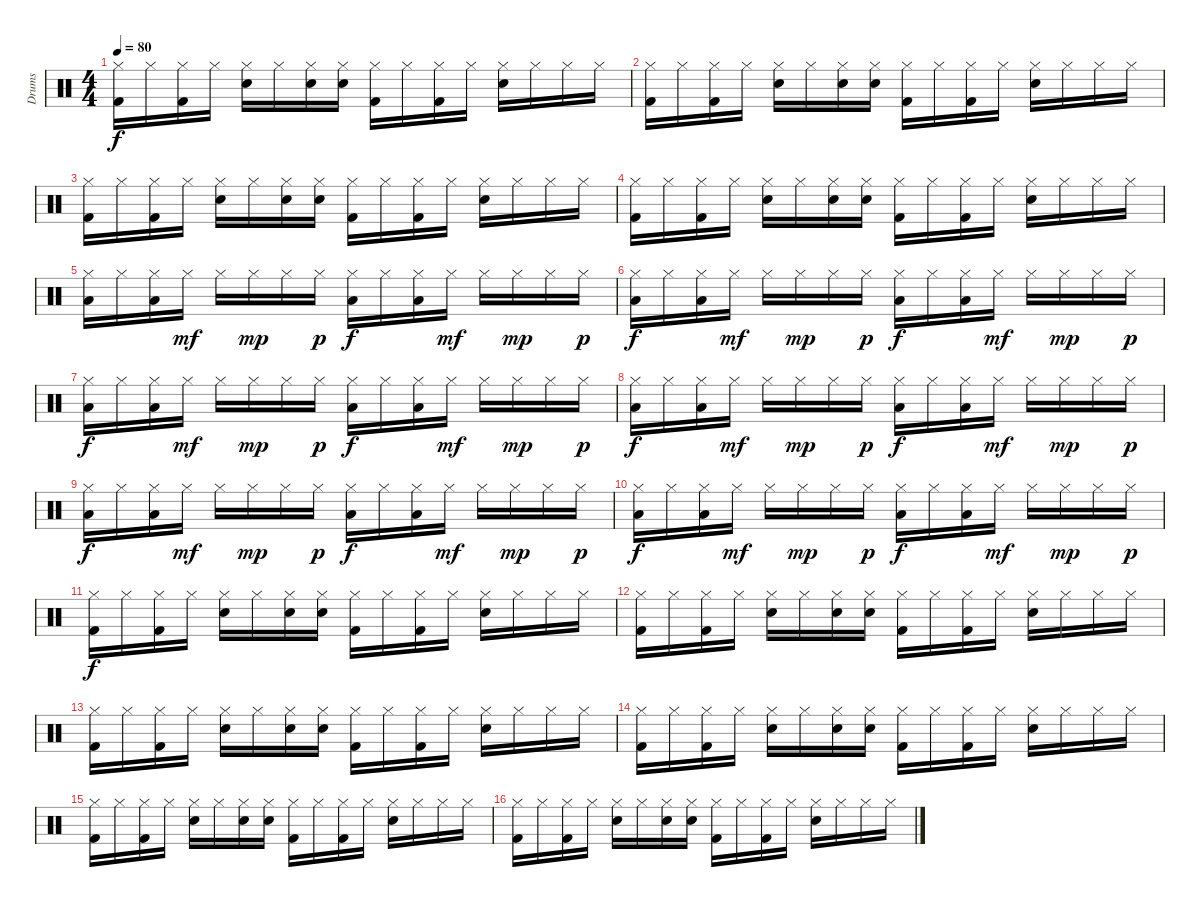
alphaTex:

\track ("Drums" "Drums") {instrument percussion}
\staff {score}
\articulation defaults
\ts (4 4)
\tempo 80
\clef neutral
\ks c
("Hi-Hat (closed)" "Kick (hit) 2").16{dy f} "Hi-Hat (closed)".16 ("Hi-Hat (closed)" "Kick (hit) 2").16 "Hi-Hat (closed)".16 ("Hi-Hat (closed)" "Electric Snare (hit)").16 "Hi-Hat (closed)".16 ("Hi-Hat (closed)" "Electric Snare (hit)").16 ("Hi-Hat (closed)" "Electric Snare (hit)").16 ("Hi-Hat (closed)" "Kick (hit) 2").16 "Hi-Hat (closed)".16 ("Hi-Hat (closed)" "Kick (hit) 2").16 "Hi-Hat (closed)".16 ("Hi-Hat (closed)" "Electric Snare (hit)").16 "Hi-Hat (closed)".16 "Hi-Hat (closed)".16 "Hi-Hat (closed)".16 |
("Hi-Hat (closed)" "Kick (hit) 2").16 "Hi-Hat (closed)".16 ("Hi-Hat (closed)" "Kick (hit) 2").16 "Hi-Hat (closed)".16 ("Hi-Hat (closed)" "Electric Snare (hit)").16 "Hi-Hat (closed)".16 ("Hi-Hat (closed)" "Electric Snare (hit)").16 ("Hi-Hat (closed)" "Electric Snare (hit)").16 ("Hi-Hat (closed)" "Kick (hit) 2").16 "Hi-Hat (closed)".16 ("Hi-Hat (closed)" "Kick (hit) 2").16 "Hi-Hat (closed)".16 ("Hi-Hat (closed)" "Electric Snare (hit)").16 "Hi-Hat (closed)".16 "Hi-Hat (closed)".16 "Hi-Hat (closed)".16 |
("Hi-Hat (closed)" "Kick (hit) 2").16 "Hi-Hat (closed)".16 ("Hi-Hat (closed)" "Kick (hit) 2").16 "Hi-Hat (closed)".16 ("Hi-Hat (closed)" "Electric Snare (hit)").16 "Hi-Hat (closed)".16 ("Hi-Hat (closed)" "Electric Snare (hit)").16 ("Hi-Hat (closed)" "Electric Snare (hit)").16 ("Hi-Hat (closed)" "Kick (hit) 2").16 "Hi-Hat (closed)".16 ("Hi-Hat (closed)" "Kick (hit) 2").16 "Hi-Hat (closed)".16 ("Hi-Hat (closed)" "Electric Snare (hit)").16 "Hi-Hat (closed)".16 "Hi-Hat (closed)".16 "Hi-Hat (closed)".16 |
("Hi-Hat (closed)" "Kick (hit) 2").16 "Hi-Hat (closed)".16 ("Hi-Hat (closed)" "Kick (hit) 2").16 "Hi-Hat (closed)".16 ("Hi-Hat (closed)" "Electric Snare (hit)").16 "Hi-Hat (closed)".16 ("Hi-Hat (closed)" "Electric Snare (hit)").16 ("Hi-Hat (closed)" "Electric Snare (hit)").16 ("Hi-Hat (closed)" "Kick (hit) 2").16 "Hi-Hat (closed)".16 ("Hi-Hat (closed)" "Kick (hit) 2").16 "Hi-Hat (closed)".16 ("Hi-Hat (closed)" "Electric Snare (hit)").16 "Hi-Hat (closed)".16 "Hi-Hat (closed)".16 "Hi-Hat (closed)".16 |
("Hi-Hat (closed)" "Low Tom (hit)").16 "Hi-Hat (closed)".16 ("Hi-Hat (closed)" "Low Tom (hit)").16 "Hi-Hat (closed)".16{dy mf} "Hi-Hat (closed)".16 "Hi-Hat (closed)".16{dy mp} "Hi-Hat (closed)".16 "Hi-Hat (closed)".16{dy p} ("Hi-Hat (closed)" "Low Tom (hit)").16{dy f} "Hi-Hat (closed)".16 ("Hi-Hat (closed)" "Low Tom (hit)").16 "Hi-Hat (closed)".16{dy mf} "Hi-Hat (closed)".16 "Hi-Hat (closed)".16{dy mp} "Hi-Hat (closed)".16 "Hi-Hat (closed)".16{dy p} |
("Hi-Hat (closed)" "Low Tom (hit)").16{dy f} "Hi-Hat (closed)".16 ("Hi-Hat (closed)" "Low Tom (hit)").16 "Hi-Hat (closed)".16{dy mf} "Hi-Hat (closed)".16 "Hi-Hat (closed)".16{dy mp} "Hi-Hat (closed)".16 "Hi-Hat (closed)".16{dy p} ("Hi-Hat (closed)" "Low Tom (hit)").16{dy f} "Hi-Hat (closed)".16 ("Hi-Hat (closed)" "Low Tom (hit)").16 "Hi-Hat (closed)".16{dy mf} "Hi-Hat (closed)".16 "Hi-Hat (closed)".16{dy mp} "Hi-Hat (closed)".16 "Hi-Hat (closed)".16{dy p} |
("Hi-Hat (closed)" "Low Tom (hit)").16{dy f} "Hi-Hat (closed)".16 ("Hi-Hat (closed)" "Low Tom (hit)").16 "Hi-Hat (closed)".16{dy mf} "Hi-Hat (closed)".16 "Hi-Hat (closed)".16{dy mp} "Hi-Hat (closed)".16 "Hi-Hat (closed)".16{dy p} ("Hi-Hat (closed)" "Low Tom (hit)").16{dy f} "Hi-Hat (closed)".16 ("Hi-Hat (closed)" "Low Tom (hit)").16 "Hi-Hat (closed)".16{dy mf} "Hi-Hat (closed)".16 "Hi-Hat (closed)".16{dy mp} "Hi-Hat (closed)".16 "Hi-Hat (closed)".16{dy p} |
("Hi-Hat (closed)" "Low Tom (hit)").16{dy f} "Hi-Hat (closed)".16 ("Hi-Hat (closed)" "Low Tom (hit)").16 "Hi-Hat (closed)".16{dy mf} "Hi-Hat (closed)".16 "Hi-Hat (closed)".16{dy mp} "Hi-Hat (closed)".16 "Hi-Hat (closed)".16{dy p} ("Hi-Hat (closed)" "Low Tom (hit)").16{dy f} "Hi-Hat (closed)".16 ("Hi-Hat (closed)" "Low Tom (hit)").16 "Hi-Hat (closed)".16{dy mf} "Hi-Hat (closed)".16 "Hi-Hat (closed)".16{dy mp} "Hi-Hat (closed)".16 "Hi-Hat (closed)".16{dy p} |
("Hi-Hat (closed)" "Low Tom (hit)").16{dy f} "Hi-Hat (closed)".16 ("Hi-Hat (closed)" "Low Tom (hit)").16 "Hi-Hat (closed)".16{dy mf} "Hi-Hat (closed)".16 "Hi-Hat (closed)".16{dy mp} "Hi-Hat (closed)".16 "Hi-Hat (closed)".16{dy p} ("Hi-Hat (closed)" "Low Tom (hit)").16{dy f} "Hi-Hat (closed)".16 ("Hi-Hat (closed)" "Low Tom (hit)").16 "Hi-Hat (closed)".16{dy mf} "Hi-Hat (closed)".16 "Hi-Hat (closed)".16{dy mp} "Hi-Hat (closed)".16 "Hi-Hat (closed)".16{dy p} |
("Hi-Hat (closed)" "Low Tom (hit)").16{dy f} "Hi-Hat (closed)".16 ("Hi-Hat (closed)" "Low Tom (hit)").16 "Hi-Hat (closed)".16{dy mf} "Hi-Hat (closed)".16 "Hi-Hat (closed)".16{dy mp} "Hi-Hat (closed)".16 "Hi-Hat (closed)".16{dy p} ("Hi-Hat (closed)" "Low Tom (hit)").16{dy f} "Hi-Hat (closed)".16 ("Hi-Hat (closed)" "Low Tom (hit)").16 "Hi-Hat (closed)".16{dy mf} "Hi-Hat (closed)".16 "Hi-Hat (closed)".16{dy mp} "Hi-Hat (closed)".16 "Hi-Hat (closed)".16{dy p} |
("Hi-Hat (closed)" "Kick (hit) 2").16{dy f} "Hi-Hat (closed)".16 ("Hi-Hat (closed)" "Kick (hit) 2").16 "Hi-Hat (closed)".16 ("Hi-Hat (closed)" "Electric Snare (hit)").16 "Hi-Hat (closed)".16 ("Hi-Hat (closed)" "Electric Snare (hit)").16 ("Hi-Hat (closed)" "Electric Snare (hit)").16 ("Hi-Hat (closed)" "Kick (hit) 2").16 "Hi-Hat (closed)".16 ("Hi-Hat (closed)" "Kick (hit) 2").16 "Hi-Hat (closed)".16 ("Hi-Hat (closed)" "Electric Snare (hit)").16 "Hi-Hat (closed)".16 "Hi-Hat (closed)".16 "Hi-Hat (closed)".16 |
("Hi-Hat (closed)" "Kick (hit) 2").16 "Hi-Hat (closed)".16 ("Hi-Hat (closed)" "Kick (hit) 2").16 "Hi-Hat (closed)".16 ("Hi-Hat (closed)" "Electric Snare (hit)").16 "Hi-Hat (closed)".16 ("Hi-Hat (closed)" "Electric Snare (hit)").16 ("Hi-Hat (closed)" "Electric Snare (hit)").16 ("Hi-Hat (closed)" "Kick (hit) 2").16 "Hi-Hat (closed)".16 ("Hi-Hat (closed)" "Kick (hit) 2").16 "Hi-Hat (closed)".16 ("Hi-Hat (closed)" "Electric Snare (hit)").16 "Hi-Hat (closed)".16 "Hi-Hat (closed)".16 "Hi-Hat (closed)".16 |
("Hi-Hat (closed)" "Kick (hit) 2").16 "Hi-Hat (closed)".16 ("Hi-Hat (closed)" "Kick (hit) 2").16 "Hi-Hat (closed)".16 ("Hi-Hat (closed)" "Electric Snare (hit)").16 "Hi-Hat (closed)".16 ("Hi-Hat (closed)" "Electric Snare (hit)").16 ("Hi-Hat (closed)" "Electric Snare (hit)").16 ("Hi-Hat (closed)" "Kick (hit) 2").16 "Hi-Hat (closed)".16 ("Hi-Hat (closed)" "Kick (hit) 2").16 "Hi-Hat (closed)".16 ("Hi-Hat (closed)" "Electric Snare (hit)").16 "Hi-Hat (closed)".16 "Hi-Hat (closed)".16 "Hi-Hat (closed)".16 |
("Hi-Hat (closed)" "Kick (hit) 2").16 "Hi-Hat (closed)".16 ("Hi-Hat (closed)" "Kick (hit) 2").16 "Hi-Hat (closed)".16 ("Hi-Hat (closed)" "Electric Snare (hit)").16 "Hi-Hat (closed)".16 ("Hi-Hat (closed)" "Electric Snare (hit)").16 ("Hi-Hat (closed)" "Electric Snare (hit)").16 ("Hi-Hat (closed)" "Kick (hit) 2").16 "Hi-Hat (closed)".16 ("Hi-Hat (closed)" "Kick (hit) 2").16 "Hi-Hat (closed)".16 ("Hi-Hat (closed)" "Electric Snare (hit)").16 "Hi-Hat (closed)".16 "Hi-Hat (closed)".16 "Hi-Hat (closed)".16 |
("Hi-Hat (closed)" "Kick (hit) 2").16 "Hi-Hat (closed)".16 ("Hi-Hat (closed)" "Kick (hit) 2").16 "Hi-Hat (closed)".16 ("Hi-Hat (closed)" "Electric Snare (hit)").16 "Hi-Hat (closed)".16 ("Hi-Hat (closed)" "Electric Snare (hit)").16 ("Hi-Hat (closed)" "Electric Snare (hit)").16 ("Hi-Hat (closed)" "Kick (hit) 2").16 "Hi-Hat (closed)".16 ("Hi-Hat (closed)" "Kick (hit) 2").16 "Hi-Hat (closed)".16 ("Hi-Hat (closed)" "Electric Snare (hit)").16 "Hi-Hat (closed)".16 "Hi-Hat (closed)".16 "Hi-Hat (closed)".16 |
("Hi-Hat (closed)" "Kick (hit) 2").16 "Hi-Hat (closed)".16 ("Hi-Hat (closed)" "Kick (hit) 2").16 "Hi-Hat (closed)".16 ("Hi-Hat (closed)" "Electric Snare (hit)").16 "Hi-Hat (closed)".16 ("Hi-Hat (closed)" "Electric Snare (hit)").16 ("Hi-Hat (closed)" "Electric Snare (hit)").16 ("Hi-Hat (closed)" "Kick (hit) 2").16 "Hi-Hat (closed)".16 ("Hi-Hat (closed)" "Kick (hit) 2").16 "Hi-Hat (closed)".16 ("Hi-Hat (closed)" "Electric Snare (hit)").16 "Hi-Hat (closed)".16 "Hi-Hat (closed)".16 "Hi-Hat (closed)".16
